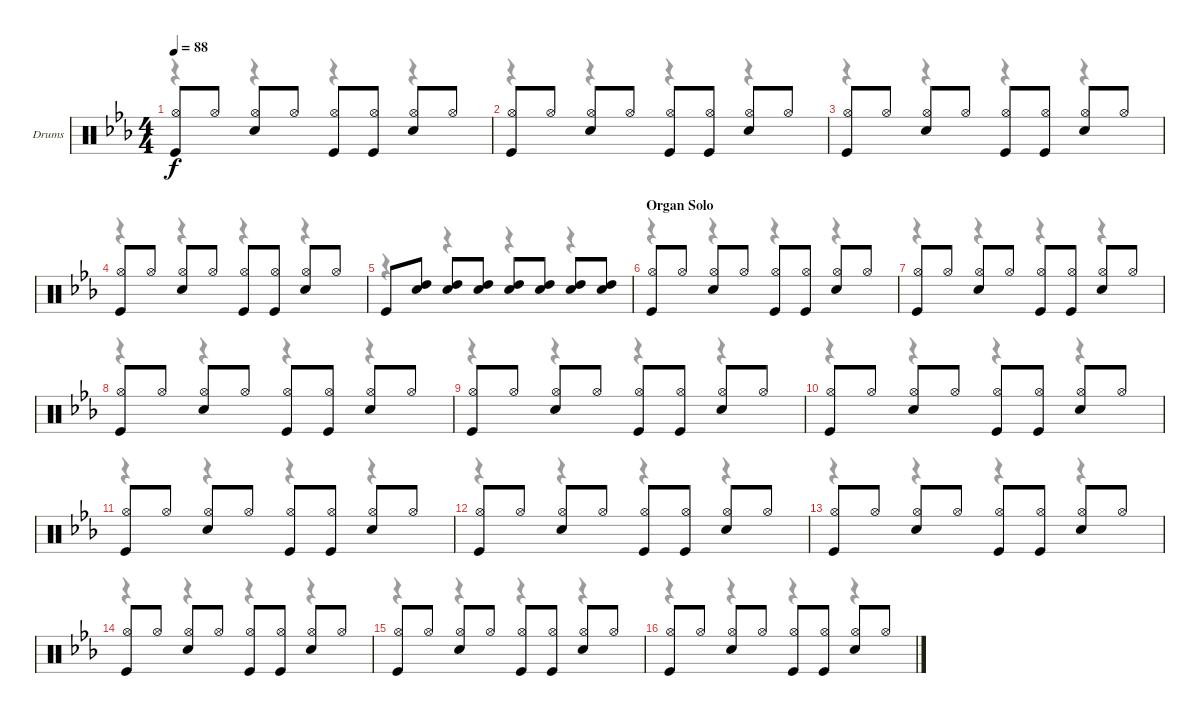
\bracketExtendMode groupsimilarinstruments
\firstSystemTrackNameOrientation horizontal
\otherSystemsTrackNameOrientation horizontal
\track ("Ian Paice - Drums" "Drums") {instrument percussion}
\staff {score}
\articulation defaults
\voice
\ts (4 4)
\tempo 88
\clef neutral
\ks cminor
("Hi-Hat (open)" "Kick (hit)").8{dy f} "Hi-Hat (open)".8 ("Hi-Hat (open)" "Snare (hit) 2").8 "Hi-Hat (open)".8 ("Hi-Hat (open)" "Kick (hit)").8 ("Hi-Hat (open)" "Kick (hit)").8 ("Hi-Hat (open)" "Snare (hit) 2").8 "Hi-Hat (open)".8 |
("Hi-Hat (open)" "Kick (hit)").8 "Hi-Hat (open)".8 ("Hi-Hat (open)" "Snare (hit) 2").8 "Hi-Hat (open)".8 ("Hi-Hat (open)" "Kick (hit)").8 ("Hi-Hat (open)" "Kick (hit)").8 ("Hi-Hat (open)" "Snare (hit) 2").8 "Hi-Hat (open)".8 |
("Hi-Hat (open)" "Kick (hit)").8 "Hi-Hat (open)".8 ("Hi-Hat (open)" "Snare (hit) 2").8 "Hi-Hat (open)".8 ("Hi-Hat (open)" "Kick (hit)").8 ("Hi-Hat (open)" "Kick (hit)").8 ("Hi-Hat (open)" "Snare (hit) 2").8 "Hi-Hat (open)".8 |
("Hi-Hat (open)" "Kick (hit)").8 "Hi-Hat (open)".8 ("Hi-Hat (open)" "Snare (hit) 2").8 "Hi-Hat (open)".8 ("Hi-Hat (open)" "Kick (hit)").8 ("Hi-Hat (open)" "Kick (hit)").8 ("Hi-Hat (open)" "Snare (hit) 2").8 "Hi-Hat (open)".8 |
"Kick (hit)".8 ("Snare (hit) 2" "High Tom (hit)").8 ("Snare (hit) 2" "High Tom (hit)").8 ("Snare (hit) 2" "High Tom (hit)").8 ("Snare (hit) 2" "High Tom (hit)").8 ("Snare (hit) 2" "High Tom (hit)").8 ("Snare (hit) 2" "High Tom (hit)").8 ("Snare (hit) 2" "High Tom (hit)").8 |
\section ("" "Organ Solo")
("Hi-Hat (open)" "Kick (hit)").8 "Hi-Hat (open)".8 ("Hi-Hat (open)" "Snare (hit) 2").8 "Hi-Hat (open)".8 ("Hi-Hat (open)" "Kick (hit)").8 ("Hi-Hat (open)" "Kick (hit)").8 ("Hi-Hat (open)" "Snare (hit) 2").8 "Hi-Hat (open)".8 |
("Hi-Hat (open)" "Kick (hit)").8 "Hi-Hat (open)".8 ("Hi-Hat (open)" "Snare (hit) 2").8 "Hi-Hat (open)".8 ("Hi-Hat (open)" "Kick (hit)").8 ("Hi-Hat (open)" "Kick (hit)").8 ("Hi-Hat (open)" "Snare (hit) 2").8 "Hi-Hat (open)".8 |
("Hi-Hat (open)" "Kick (hit)").8 "Hi-Hat (open)".8 ("Hi-Hat (open)" "Snare (hit) 2").8 "Hi-Hat (open)".8 ("Hi-Hat (open)" "Kick (hit)").8 ("Hi-Hat (open)" "Kick (hit)").8 ("Hi-Hat (open)" "Snare (hit) 2").8 "Hi-Hat (open)".8 |
("Hi-Hat (open)" "Kick (hit)").8 "Hi-Hat (open)".8 ("Hi-Hat (open)" "Snare (hit) 2").8 "Hi-Hat (open)".8 ("Hi-Hat (open)" "Kick (hit)").8 ("Hi-Hat (open)" "Kick (hit)").8 ("Hi-Hat (open)" "Snare (hit) 2").8 "Hi-Hat (open)".8 |
("Hi-Hat (open)" "Kick (hit)").8 "Hi-Hat (open)".8 ("Hi-Hat (open)" "Snare (hit) 2").8 "Hi-Hat (open)".8 ("Hi-Hat (open)" "Kick (hit)").8 ("Hi-Hat (open)" "Kick (hit)").8 ("Hi-Hat (open)" "Snare (hit) 2").8 "Hi-Hat (open)".8 |
("Hi-Hat (open)" "Kick (hit)").8 "Hi-Hat (open)".8 ("Hi-Hat (open)" "Snare (hit) 2").8 "Hi-Hat (open)".8 ("Hi-Hat (open)" "Kick (hit)").8 ("Hi-Hat (open)" "Kick (hit)").8 ("Hi-Hat (open)" "Snare (hit) 2").8 "Hi-Hat (open)".8 |
("Hi-Hat (open)" "Kick (hit)").8 "Hi-Hat (open)".8 ("Hi-Hat (open)" "Snare (hit) 2").8 "Hi-Hat (open)".8 ("Hi-Hat (open)" "Kick (hit)").8 ("Hi-Hat (open)" "Kick (hit)").8 ("Hi-Hat (open)" "Snare (hit) 2").8 "Hi-Hat (open)".8 |
("Hi-Hat (open)" "Kick (hit)").8 "Hi-Hat (open)".8 ("Hi-Hat (open)" "Snare (hit) 2").8 "Hi-Hat (open)".8 ("Hi-Hat (open)" "Kick (hit)").8 ("Hi-Hat (open)" "Kick (hit)").8 ("Hi-Hat (open)" "Snare (hit) 2").8 "Hi-Hat (open)".8 |
("Hi-Hat (open)" "Kick (hit)").8 "Hi-Hat (open)".8 ("Hi-Hat (open)" "Snare (hit) 2").8 "Hi-Hat (open)".8 ("Hi-Hat (open)" "Kick (hit)").8 ("Hi-Hat (open)" "Kick (hit)").8 ("Hi-Hat (open)" "Snare (hit) 2").8 "Hi-Hat (open)".8 |
("Hi-Hat (open)" "Kick (hit)").8 "Hi-Hat (open)".8 ("Hi-Hat (open)" "Snare (hit) 2").8 "Hi-Hat (open)".8 ("Hi-Hat (open)" "Kick (hit)").8 ("Hi-Hat (open)" "Kick (hit)").8 ("Hi-Hat (open)" "Snare (hit) 2").8 "Hi-Hat (open)".8 |
("Hi-Hat (open)" "Kick (hit)").8 "Hi-Hat (open)".8 ("Hi-Hat (open)" "Snare (hit) 2").8 "Hi-Hat (open)".8 ("Hi-Hat (open)" "Kick (hit)").8 ("Hi-Hat (open)" "Kick (hit)").8 ("Hi-Hat (open)" "Snare (hit) 2").8 "Hi-Hat (open)".8
\voice
\clef neutral
\ottava regular
\simile none
\ks cminor
r.4{dy mf} r.4 r.4 r.4 |
r.4 r.4 r.4 r.4 |
r.4 r.4 r.4 r.4 |
r.4 r.4 r.4 r.4 |
r.4 r.4 r.4 r.4 |
r.4 r.4 r.4 r.4 |
r.4 r.4 r.4 r.4 |
r.4 r.4 r.4 r.4 |
r.4 r.4 r.4 r.4 |
r.4 r.4 r.4 r.4 |
r.4 r.4 r.4 r.4 |
r.4 r.4 r.4 r.4 |
r.4 r.4 r.4 r.4 |
r.4 r.4 r.4 r.4 |
r.4 r.4 r.4 r.4 |
r.4 r.4 r.4 r.4
